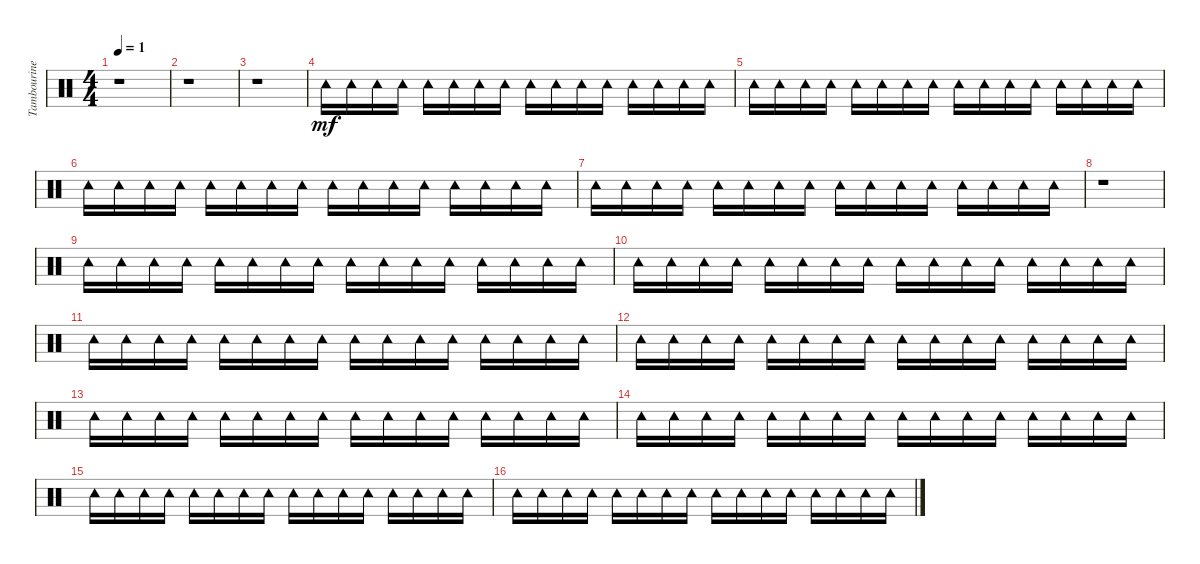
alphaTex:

\track ("Tambourine" "Tambourine") {instrument percussion}
\staff {score}
\articulation defaults
\ts (4 4)
\tempo 1
\clef neutral
\ks c
r.1{dy mf} |
r.1 |
r.1 |
"Tambourine (hit)".16 "Tambourine (hit)".16 "Tambourine (hit)".16 "Tambourine (hit)".16 "Tambourine (hit)".16 "Tambourine (hit)".16 "Tambourine (hit)".16 "Tambourine (hit)".16 "Tambourine (hit)".16 "Tambourine (hit)".16 "Tambourine (hit)".16 "Tambourine (hit)".16 "Tambourine (hit)".16 "Tambourine (hit)".16 "Tambourine (hit)".16 "Tambourine (hit)".16 |
"Tambourine (hit)".16 "Tambourine (hit)".16 "Tambourine (hit)".16 "Tambourine (hit)".16 "Tambourine (hit)".16 "Tambourine (hit)".16 "Tambourine (hit)".16 "Tambourine (hit)".16 "Tambourine (hit)".16 "Tambourine (hit)".16 "Tambourine (hit)".16 "Tambourine (hit)".16 "Tambourine (hit)".16 "Tambourine (hit)".16 "Tambourine (hit)".16 "Tambourine (hit)".16 |
"Tambourine (hit)".16 "Tambourine (hit)".16 "Tambourine (hit)".16 "Tambourine (hit)".16 "Tambourine (hit)".16 "Tambourine (hit)".16 "Tambourine (hit)".16 "Tambourine (hit)".16 "Tambourine (hit)".16 "Tambourine (hit)".16 "Tambourine (hit)".16 "Tambourine (hit)".16 "Tambourine (hit)".16 "Tambourine (hit)".16 "Tambourine (hit)".16 "Tambourine (hit)".16 |
"Tambourine (hit)".16 "Tambourine (hit)".16 "Tambourine (hit)".16 "Tambourine (hit)".16 "Tambourine (hit)".16 "Tambourine (hit)".16 "Tambourine (hit)".16 "Tambourine (hit)".16 "Tambourine (hit)".16 "Tambourine (hit)".16 "Tambourine (hit)".16 "Tambourine (hit)".16 "Tambourine (hit)".16 "Tambourine (hit)".16 "Tambourine (hit)".16 "Tambourine (hit)".16 |
r.1 |
"Tambourine (hit)".16 "Tambourine (hit)".16 "Tambourine (hit)".16 "Tambourine (hit)".16 "Tambourine (hit)".16 "Tambourine (hit)".16 "Tambourine (hit)".16 "Tambourine (hit)".16 "Tambourine (hit)".16 "Tambourine (hit)".16 "Tambourine (hit)".16 "Tambourine (hit)".16 "Tambourine (hit)".16 "Tambourine (hit)".16 "Tambourine (hit)".16 "Tambourine (hit)".16 |
"Tambourine (hit)".16 "Tambourine (hit)".16 "Tambourine (hit)".16 "Tambourine (hit)".16 "Tambourine (hit)".16 "Tambourine (hit)".16 "Tambourine (hit)".16 "Tambourine (hit)".16 "Tambourine (hit)".16 "Tambourine (hit)".16 "Tambourine (hit)".16 "Tambourine (hit)".16 "Tambourine (hit)".16 "Tambourine (hit)".16 "Tambourine (hit)".16 "Tambourine (hit)".16 |
"Tambourine (hit)".16 "Tambourine (hit)".16 "Tambourine (hit)".16 "Tambourine (hit)".16 "Tambourine (hit)".16 "Tambourine (hit)".16 "Tambourine (hit)".16 "Tambourine (hit)".16 "Tambourine (hit)".16 "Tambourine (hit)".16 "Tambourine (hit)".16 "Tambourine (hit)".16 "Tambourine (hit)".16 "Tambourine (hit)".16 "Tambourine (hit)".16 "Tambourine (hit)".16 |
"Tambourine (hit)".16 "Tambourine (hit)".16 "Tambourine (hit)".16 "Tambourine (hit)".16 "Tambourine (hit)".16 "Tambourine (hit)".16 "Tambourine (hit)".16 "Tambourine (hit)".16 "Tambourine (hit)".16 "Tambourine (hit)".16 "Tambourine (hit)".16 "Tambourine (hit)".16 "Tambourine (hit)".16 "Tambourine (hit)".16 "Tambourine (hit)".16 "Tambourine (hit)".16 |
"Tambourine (hit)".16 "Tambourine (hit)".16 "Tambourine (hit)".16 "Tambourine (hit)".16 "Tambourine (hit)".16 "Tambourine (hit)".16 "Tambourine (hit)".16 "Tambourine (hit)".16 "Tambourine (hit)".16 "Tambourine (hit)".16 "Tambourine (hit)".16 "Tambourine (hit)".16 "Tambourine (hit)".16 "Tambourine (hit)".16 "Tambourine (hit)".16 "Tambourine (hit)".16 |
"Tambourine (hit)".16 "Tambourine (hit)".16 "Tambourine (hit)".16 "Tambourine (hit)".16 "Tambourine (hit)".16 "Tambourine (hit)".16 "Tambourine (hit)".16 "Tambourine (hit)".16 "Tambourine (hit)".16 "Tambourine (hit)".16 "Tambourine (hit)".16 "Tambourine (hit)".16 "Tambourine (hit)".16 "Tambourine (hit)".16 "Tambourine (hit)".16 "Tambourine (hit)".16 |
"Tambourine (hit)".16 "Tambourine (hit)".16 "Tambourine (hit)".16 "Tambourine (hit)".16 "Tambourine (hit)".16 "Tambourine (hit)".16 "Tambourine (hit)".16 "Tambourine (hit)".16 "Tambourine (hit)".16 "Tambourine (hit)".16 "Tambourine (hit)".16 "Tambourine (hit)".16 "Tambourine (hit)".16 "Tambourine (hit)".16 "Tambourine (hit)".16 "Tambourine (hit)".16 |
"Tambourine (hit)".16 "Tambourine (hit)".16 "Tambourine (hit)".16 "Tambourine (hit)".16 "Tambourine (hit)".16 "Tambourine (hit)".16 "Tambourine (hit)".16 "Tambourine (hit)".16 "Tambourine (hit)".16 "Tambourine (hit)".16 "Tambourine (hit)".16 "Tambourine (hit)".16 "Tambourine (hit)".16 "Tambourine (hit)".16 "Tambourine (hit)".16 "Tambourine (hit)".16
